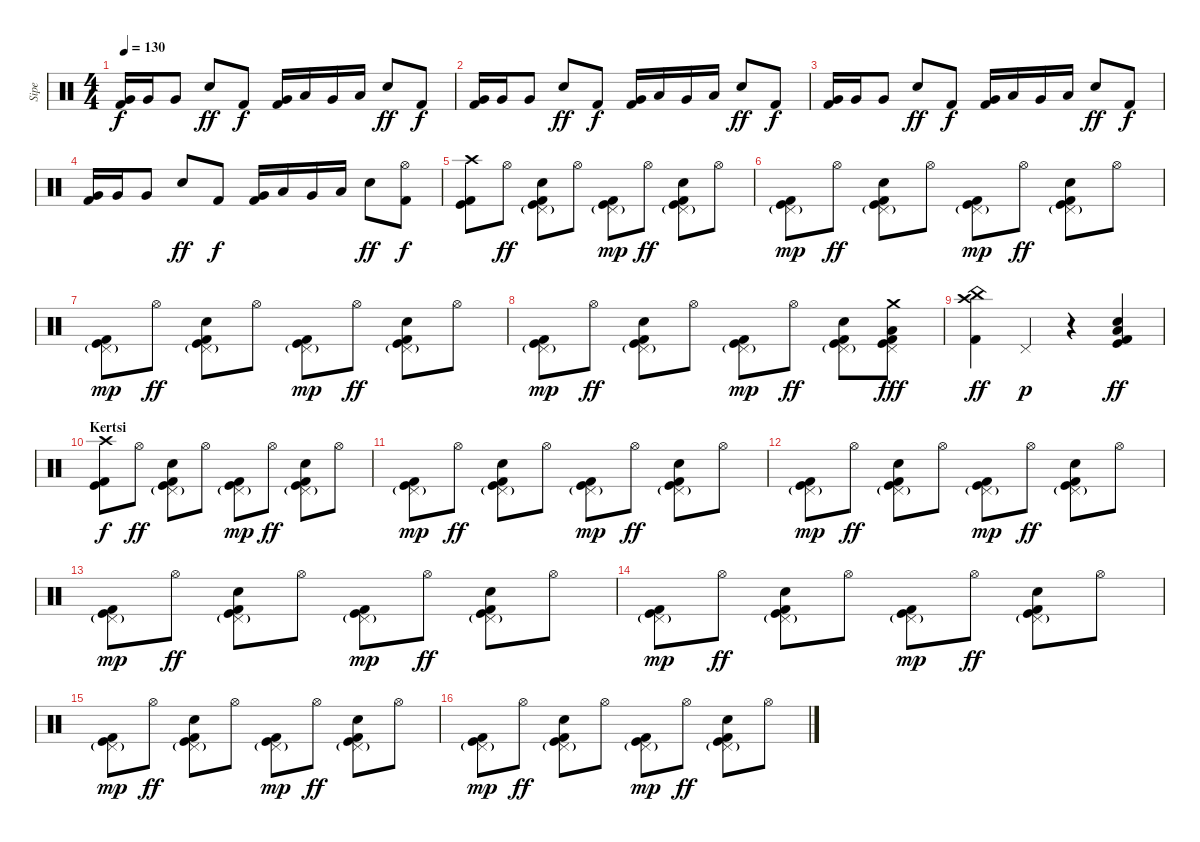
\track ("Sipe" "Sipe") {instrument percussion}
\staff {score}
\articulation defaults
\ts (4 4)
\tempo 130
\clef neutral
\ks c
("Very Low Tom (hit)" "Kick (hit) 2").16{dy f} "Very Low Tom (hit)".16 "Very Low Tom (hit)".8 "Electric Snare (hit)".8{dy ff} "Kick (hit) 2".8{dy f} ("Very Low Tom (hit)" "Kick (hit) 2").16 "Low Floor Tom (hit)".16 "Very Low Tom (hit)".16 "Low Floor Tom (hit)".16 "Electric Snare (hit)".8{dy ff} "Kick (hit) 2".8{dy f} |
("Very Low Tom (hit)" "Kick (hit) 2").16 "Very Low Tom (hit)".16 "Very Low Tom (hit)".8 "Electric Snare (hit)".8{dy ff} "Kick (hit) 2".8{dy f} ("Very Low Tom (hit)" "Kick (hit) 2").16 "Low Floor Tom (hit)".16 "Very Low Tom (hit)".16 "Low Floor Tom (hit)".16 "Electric Snare (hit)".8{dy ff} "Kick (hit) 2".8{dy f} |
("Very Low Tom (hit)" "Kick (hit) 2").16 "Very Low Tom (hit)".16 "Very Low Tom (hit)".8 "Electric Snare (hit)".8{dy ff} "Kick (hit) 2".8{dy f} ("Very Low Tom (hit)" "Kick (hit) 2").16 "Low Floor Tom (hit)".16 "Very Low Tom (hit)".16 "Low Floor Tom (hit)".16 "Electric Snare (hit)".8{dy ff} "Kick (hit) 2".8{dy f} |
("Very Low Tom (hit)" "Kick (hit) 2").16 "Very Low Tom (hit)".16 "Very Low Tom (hit)".8 "Electric Snare (hit)".8{dy ff} "Kick (hit) 2".8{dy f} ("Very Low Tom (hit)" "Kick (hit) 2").16 "Low Floor Tom (hit)".16 "Very Low Tom (hit)".16 "Low Floor Tom (hit)".16 "Electric Snare (hit)".8{dy ff} ("Hi-Hat (open)" "Kick (hit) 2").8{dy f} |
("Crash high (hit)" "Kick (hit)" "Kick (hit) 2").8 "Hi-Hat (open)".8{dy ff} ("Pedal Hi-Hat (hit)"{g} "Electric Snare (hit)" "Kick (hit)" "Kick (hit) 2").8 "Hi-Hat (open)".8 ("Pedal Hi-Hat (hit)"{g} "Kick (hit)" "Kick (hit) 2").8{dy mp} "Hi-Hat (open)".8{dy ff} ("Pedal Hi-Hat (hit)"{g} "Electric Snare (hit)" "Kick (hit)" "Kick (hit) 2").8 "Hi-Hat (open)".8 |
("Pedal Hi-Hat (hit)"{g} "Kick (hit)" "Kick (hit) 2").8{dy mp} "Hi-Hat (open)".8{dy ff} ("Pedal Hi-Hat (hit)"{g} "Electric Snare (hit)" "Kick (hit)" "Kick (hit) 2").8 "Hi-Hat (open)".8 ("Pedal Hi-Hat (hit)"{g} "Kick (hit)" "Kick (hit) 2").8{dy mp} "Hi-Hat (open)".8{dy ff} ("Pedal Hi-Hat (hit)"{g} "Electric Snare (hit)" "Kick (hit)" "Kick (hit) 2").8 "Hi-Hat (open)".8 |
("Pedal Hi-Hat (hit)"{g} "Kick (hit)" "Kick (hit) 2").8{dy mp} "Hi-Hat (open)".8{dy ff} ("Pedal Hi-Hat (hit)"{g} "Electric Snare (hit)" "Kick (hit)" "Kick (hit) 2").8 "Hi-Hat (open)".8 ("Pedal Hi-Hat (hit)"{g} "Kick (hit)" "Kick (hit) 2").8{dy mp} "Hi-Hat (open)".8{dy ff} ("Pedal Hi-Hat (hit)"{g} "Electric Snare (hit)" "Kick (hit)" "Kick (hit) 2").8 "Hi-Hat (open)".8 |
("Pedal Hi-Hat (hit)"{g} "Kick (hit)" "Kick (hit) 2").8{dy mp} "Hi-Hat (open)".8{dy ff} ("Pedal Hi-Hat (hit)"{g} "Electric Snare (hit)" "Kick (hit)" "Kick (hit) 2").8 "Hi-Hat (open)".8 ("Pedal Hi-Hat (hit)"{g} "Kick (hit)" "Kick (hit) 2").8{dy mp} "Hi-Hat (open)".8{dy ff} ("Pedal Hi-Hat (hit)"{g} "Electric Snare (hit)" "Kick (hit)" "Kick (hit) 2").8 ("Crash medium (hit)" "Pedal Hi-Hat (hit)" "Low Floor Tom (hit)" "Kick (hit)" "Kick (hit) 2").8{dy fff} |
("China (hit)" "Crash high (hit)" "Kick (hit) 2").4{dy ff} "Pedal Hi-Hat (hit)".4{dy p} r.4 ("Low Floor Tom (hit)" "Kick (hit) 2" "Electric Snare (hit)" "Kick (hit)").4{dy ff} |
\section ("" "Kertsi")
("Crash high (hit)" "Kick (hit)" "Kick (hit) 2").8{dy f} "Hi-Hat (open)".8{dy ff} ("Pedal Hi-Hat (hit)"{g} "Electric Snare (hit)" "Kick (hit)" "Kick (hit) 2").8 "Hi-Hat (open)".8 ("Pedal Hi-Hat (hit)"{g} "Kick (hit)" "Kick (hit) 2").8{dy mp} "Hi-Hat (open)".8{dy ff} ("Pedal Hi-Hat (hit)"{g} "Electric Snare (hit)" "Kick (hit)" "Kick (hit) 2").8 "Hi-Hat (open)".8 |
("Pedal Hi-Hat (hit)"{g} "Kick (hit)" "Kick (hit) 2").8{dy mp} "Hi-Hat (open)".8{dy ff} ("Pedal Hi-Hat (hit)"{g} "Electric Snare (hit)" "Kick (hit)" "Kick (hit) 2").8 "Hi-Hat (open)".8 ("Pedal Hi-Hat (hit)"{g} "Kick (hit)" "Kick (hit) 2").8{dy mp} "Hi-Hat (open)".8{dy ff} ("Pedal Hi-Hat (hit)"{g} "Electric Snare (hit)" "Kick (hit)" "Kick (hit) 2").8 "Hi-Hat (open)".8 |
("Pedal Hi-Hat (hit)"{g} "Kick (hit)" "Kick (hit) 2").8{dy mp} "Hi-Hat (open)".8{dy ff} ("Pedal Hi-Hat (hit)"{g} "Electric Snare (hit)" "Kick (hit)" "Kick (hit) 2").8 "Hi-Hat (open)".8 ("Pedal Hi-Hat (hit)"{g} "Kick (hit)" "Kick (hit) 2").8{dy mp} "Hi-Hat (open)".8{dy ff} ("Pedal Hi-Hat (hit)"{g} "Electric Snare (hit)" "Kick (hit)" "Kick (hit) 2").8 "Hi-Hat (open)".8 |
("Pedal Hi-Hat (hit)"{g} "Kick (hit)" "Kick (hit) 2").8{dy mp} "Hi-Hat (open)".8{dy ff} ("Pedal Hi-Hat (hit)"{g} "Electric Snare (hit)" "Kick (hit)" "Kick (hit) 2").8 "Hi-Hat (open)".8 ("Pedal Hi-Hat (hit)"{g} "Kick (hit)" "Kick (hit) 2").8{dy mp} "Hi-Hat (open)".8{dy ff} ("Pedal Hi-Hat (hit)"{g} "Electric Snare (hit)" "Kick (hit)" "Kick (hit) 2").8 "Hi-Hat (open)".8 |
("Pedal Hi-Hat (hit)"{g} "Kick (hit)" "Kick (hit) 2").8{dy mp} "Hi-Hat (open)".8{dy ff} ("Pedal Hi-Hat (hit)"{g} "Electric Snare (hit)" "Kick (hit)" "Kick (hit) 2").8 "Hi-Hat (open)".8 ("Pedal Hi-Hat (hit)"{g} "Kick (hit)" "Kick (hit) 2").8{dy mp} "Hi-Hat (open)".8{dy ff} ("Pedal Hi-Hat (hit)"{g} "Electric Snare (hit)" "Kick (hit)" "Kick (hit) 2").8 "Hi-Hat (open)".8 |
("Pedal Hi-Hat (hit)"{g} "Kick (hit)" "Kick (hit) 2").8{dy mp} "Hi-Hat (open)".8{dy ff} ("Pedal Hi-Hat (hit)"{g} "Electric Snare (hit)" "Kick (hit)" "Kick (hit) 2").8 "Hi-Hat (open)".8 ("Pedal Hi-Hat (hit)"{g} "Kick (hit)" "Kick (hit) 2").8{dy mp} "Hi-Hat (open)".8{dy ff} ("Pedal Hi-Hat (hit)"{g} "Electric Snare (hit)" "Kick (hit)" "Kick (hit) 2").8 "Hi-Hat (open)".8 |
("Pedal Hi-Hat (hit)"{g} "Kick (hit)" "Kick (hit) 2").8{dy mp} "Hi-Hat (open)".8{dy ff} ("Pedal Hi-Hat (hit)"{g} "Electric Snare (hit)" "Kick (hit)" "Kick (hit) 2").8 "Hi-Hat (open)".8 ("Pedal Hi-Hat (hit)"{g} "Kick (hit)" "Kick (hit) 2").8{dy mp} "Hi-Hat (open)".8{dy ff} ("Pedal Hi-Hat (hit)"{g} "Electric Snare (hit)" "Kick (hit)" "Kick (hit) 2").8 "Hi-Hat (open)".8
